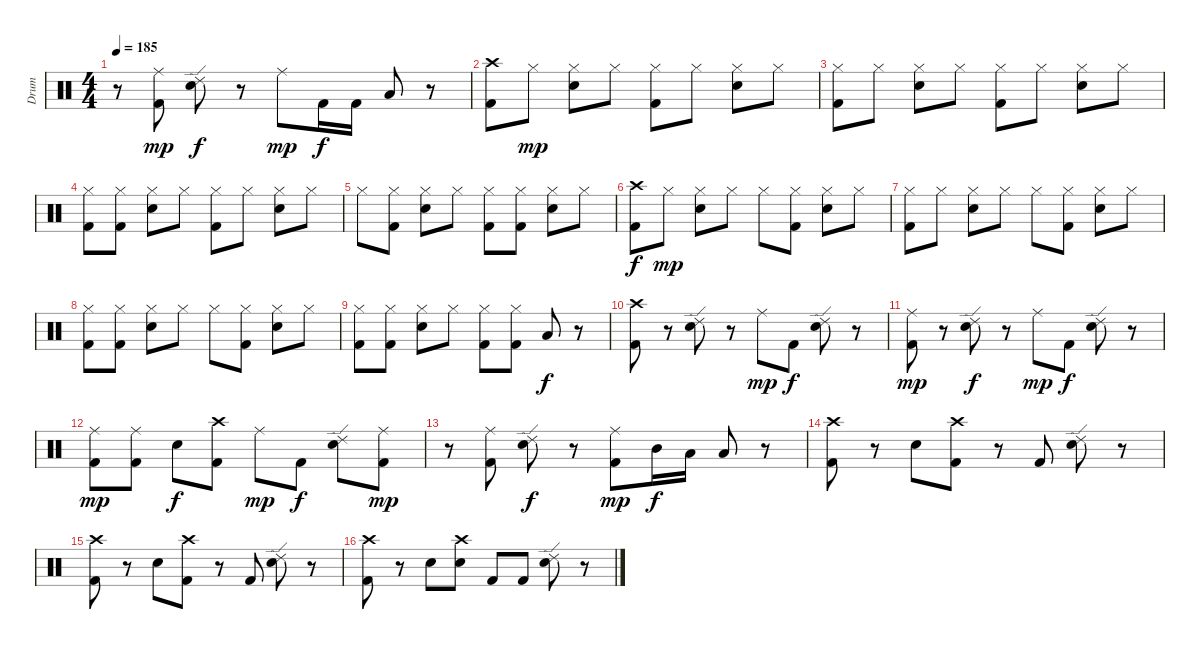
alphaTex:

\track ("Drum" "Drum") {instrument percussion}
\staff {score}
\articulation defaults
\ts (4 4)
\tempo 185
\clef neutral
\ks c
r.8{dy mp} ("Ride (middle)" "Kick (hit) 2").8 ("Ride (edge) 2" "Electric Snare (hit)").8{dy f} r.8 "Ride (middle)".8{dy mp} "Kick (hit) 2".16{dy f} "Kick (hit) 2".16 "Low Tom (hit)".8 r.8 |
("Kick (hit) 2" "Crash high (hit)").8 "Hi-Hat (closed)".8{dy mp} ("Hi-Hat (closed)" "Electric Snare (hit)").8 "Hi-Hat (closed)".8 ("Kick (hit) 2" "Hi-Hat (closed)").8 "Hi-Hat (closed)".8 ("Electric Snare (hit)" "Hi-Hat (closed)").8 "Hi-Hat (closed)".8 |
("Kick (hit) 2" "Hi-Hat (closed)").8 "Hi-Hat (closed)".8 ("Hi-Hat (closed)" "Electric Snare (hit)").8 "Hi-Hat (closed)".8 ("Kick (hit) 2" "Hi-Hat (closed)").8 "Hi-Hat (closed)".8 ("Hi-Hat (closed)" "Electric Snare (hit)").8 "Hi-Hat (closed)".8 |
("Hi-Hat (closed)" "Kick (hit) 2").8 ("Hi-Hat (closed)" "Kick (hit) 2").8 ("Hi-Hat (closed)" "Electric Snare (hit)").8 "Hi-Hat (closed)".8 ("Kick (hit) 2" "Hi-Hat (closed)").8 "Hi-Hat (closed)".8 ("Hi-Hat (closed)" "Electric Snare (hit)").8 "Hi-Hat (closed)".8 |
"Hi-Hat (closed)".8 ("Hi-Hat (closed)" "Kick (hit) 2").8 ("Hi-Hat (closed)" "Electric Snare (hit)").8 "Hi-Hat (closed)".8 ("Hi-Hat (closed)" "Kick (hit) 2").8 ("Hi-Hat (closed)" "Kick (hit) 2").8 ("Hi-Hat (closed)" "Electric Snare (hit)").8 "Hi-Hat (closed)".8 |
("Crash high (hit)" "Kick (hit) 2").8{dy f} "Hi-Hat (closed)".8{dy mp} ("Hi-Hat (closed)" "Electric Snare (hit)").8 "Hi-Hat (closed)".8 "Hi-Hat (closed)".8 ("Hi-Hat (closed)" "Kick (hit) 2").8 ("Hi-Hat (closed)" "Electric Snare (hit)").8 "Hi-Hat (closed)".8 |
("Kick (hit) 2" "Hi-Hat (closed)").8 "Hi-Hat (closed)".8 ("Hi-Hat (closed)" "Electric Snare (hit)").8 "Hi-Hat (closed)".8 "Hi-Hat (closed)".8 ("Hi-Hat (closed)" "Kick (hit) 2").8 ("Hi-Hat (closed)" "Electric Snare (hit)").8 "Hi-Hat (closed)".8 |
("Kick (hit) 2" "Hi-Hat (closed)").8 ("Kick (hit) 2" "Hi-Hat (closed)").8 ("Hi-Hat (closed)" "Electric Snare (hit)").8 "Hi-Hat (closed)".8 "Hi-Hat (closed)".8 ("Hi-Hat (closed)" "Kick (hit) 2").8 ("Hi-Hat (closed)" "Electric Snare (hit)").8 "Hi-Hat (closed)".8 |
("Hi-Hat (closed)" "Kick (hit) 2").8 ("Hi-Hat (closed)" "Kick (hit) 2").8 ("Hi-Hat (closed)" "Electric Snare (hit)").8 "Hi-Hat (closed)".8 ("Hi-Hat (closed)" "Kick (hit) 2").8 ("Hi-Hat (closed)" "Kick (hit) 2").8 "Low Tom (hit)".8{dy f} r.8 |
("Crash high (hit)" "Kick (hit) 2").8 r.8 ("Ride (edge) 2" "Electric Snare (hit)").8 r.8 "Ride (middle)".8{dy mp} "Kick (hit) 2".8{dy f} ("Ride (edge) 2" "Electric Snare (hit)").8 r.8 |
("Ride (middle)" "Kick (hit) 2").8{dy mp} r.8 ("Ride (edge) 2" "Electric Snare (hit)").8{dy f} r.8 "Ride (middle)".8{dy mp} "Kick (hit) 2".8{dy f} ("Ride (edge) 2" "Electric Snare (hit)").8 r.8 |
("Ride (middle)" "Kick (hit) 2").8{dy mp} ("Ride (middle)" "Kick (hit) 2").8 "Electric Snare (hit)".8{dy f} ("Crash high (hit)" "Kick (hit) 2").8 "Ride (middle)".8{dy mp} "Kick (hit) 2".8{dy f} ("Ride (edge) 2" "Electric Snare (hit)").8 ("Kick (hit) 2" "Ride (middle)").8{dy mp} |
r.8 ("Ride (middle)" "Kick (hit) 2").8 ("Ride (edge) 2" "Electric Snare (hit)").8{dy f} r.8 ("Ride (middle)" "Kick (hit) 2").8{dy mp} "Mid Tom (hit)".16{dy f} "Low Tom (hit)".16 "Low Tom (hit)".8 r.8 |
("Crash high (hit)" "Kick (hit) 2").8 r.8 "Electric Snare (hit)".8 ("Crash high (hit)" "Kick (hit) 2").8 r.8 "Kick (hit) 2".8 ("Ride (edge) 2" "Electric Snare (hit)").8 r.8 |
("Crash high (hit)" "Kick (hit) 2").8 r.8 "Electric Snare (hit)".8 ("Crash high (hit)" "Kick (hit) 2").8 r.8 "Kick (hit) 2".8 ("Ride (edge) 2" "Electric Snare (hit)").8 r.8 |
("Crash high (hit)" "Kick (hit) 2").8 r.8 "Electric Snare (hit)".8 ("Crash high (hit)" "Electric Snare (hit)").8 "Kick (hit) 2".8 "Kick (hit) 2".8 ("Ride (edge) 2" "Electric Snare (hit)").8 r.8
